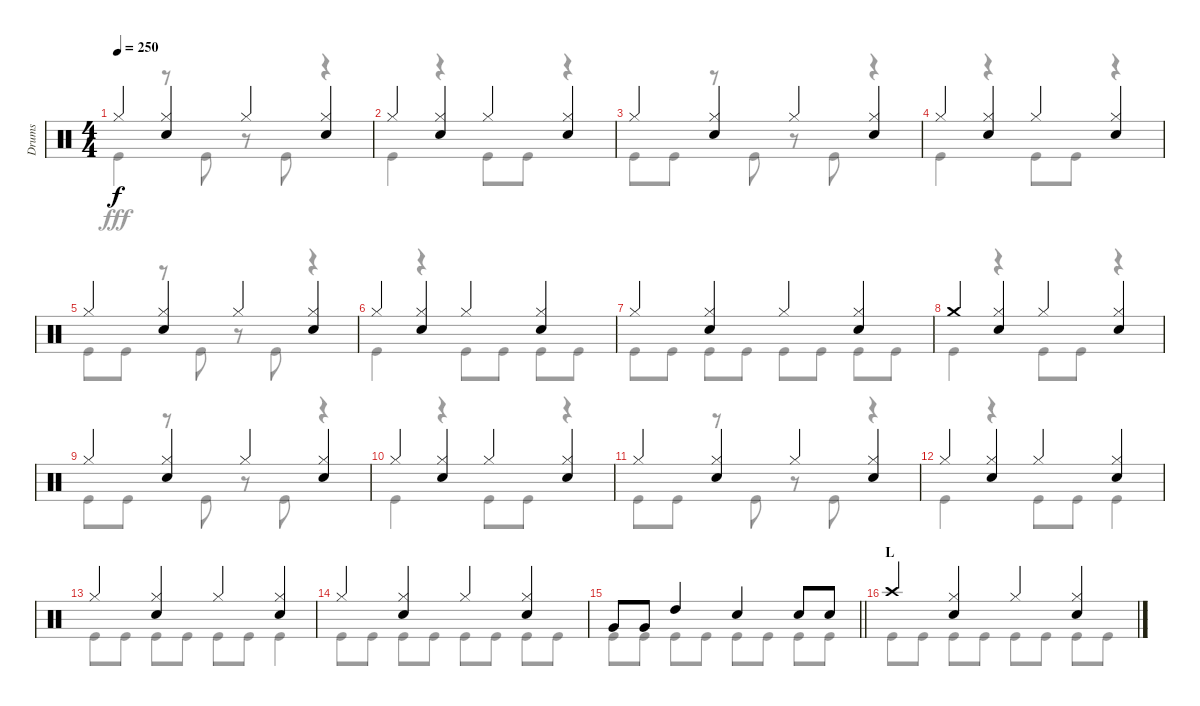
\track ("Drums" "Drums") {instrument percussion}
\staff {score}
\articulation defaults
\voice
\ts (4 4)
\tempo 250
\clef neutral
\ks c "Hi-Hat (closed)".4{dy f}
("Hi-Hat (closed)" "Snare (hit) 2").4 "Hi-Hat (closed)".4 ("Hi-Hat (closed)" "Snare (hit) 2").4 |
"Hi-Hat (closed)".4 ("Hi-Hat (closed)" "Snare (hit) 2").4 "Hi-Hat (closed)".4 ("Hi-Hat (closed)" "Snare (hit) 2").4 |
"Hi-Hat (closed)".4 ("Hi-Hat (closed)" "Snare (hit) 2").4 "Hi-Hat (closed)".4 ("Hi-Hat (closed)" "Snare (hit) 2").4 |
"Hi-Hat (closed)".4 ("Hi-Hat (closed)" "Snare (hit) 2").4 "Hi-Hat (closed)".4 ("Hi-Hat (closed)" "Snare (hit) 2").4 |
"Hi-Hat (closed)".4 ("Hi-Hat (closed)" "Snare (hit) 2").4 "Hi-Hat (closed)".4 ("Hi-Hat (closed)" "Snare (hit) 2").4 |
"Hi-Hat (closed)".4 ("Hi-Hat (closed)" "Snare (hit) 2").4 "Hi-Hat (closed)".4 ("Hi-Hat (closed)" "Snare (hit) 2").4 |
"Hi-Hat (closed)".4 ("Hi-Hat (closed)" "Snare (hit) 2").4 "Hi-Hat (closed)".4 ("Hi-Hat (closed)" "Snare (hit) 2").4 |
"Crash medium (hit)".4 ("Hi-Hat (closed)" "Snare (hit) 2").4 "Hi-Hat (closed)".4 ("Hi-Hat (closed)" "Snare (hit) 2").4 |
"Hi-Hat (closed)".4 ("Hi-Hat (closed)" "Snare (hit) 2").4 "Hi-Hat (closed)".4 ("Hi-Hat (closed)" "Snare (hit) 2").4 |
"Hi-Hat (closed)".4 ("Hi-Hat (closed)" "Snare (hit) 2").4 "Hi-Hat (closed)".4 ("Hi-Hat (closed)" "Snare (hit) 2").4 |
"Hi-Hat (closed)".4 ("Hi-Hat (closed)" "Snare (hit) 2").4 "Hi-Hat (closed)".4 ("Hi-Hat (closed)" "Snare (hit) 2").4 |
"Hi-Hat (closed)".4 ("Hi-Hat (closed)" "Snare (hit) 2").4 "Hi-Hat (closed)".4 ("Hi-Hat (closed)" "Snare (hit) 2").4 |
"Hi-Hat (closed)".4 ("Hi-Hat (closed)" "Snare (hit) 2").4 "Hi-Hat (closed)".4 ("Hi-Hat (closed)" "Snare (hit) 2").4 |
"Hi-Hat (closed)".4 ("Hi-Hat (closed)" "Snare (hit) 2").4 "Hi-Hat (closed)".4 ("Hi-Hat (closed)" "Snare (hit) 2").4 |
\barLineRight lightlight "Very Low Tom (hit)".8 "Very Low Tom (hit)".8 "High Tom (hit)".4 "Snare (hit) 2".4 "Snare (hit) 2".8 "Snare (hit) 2".8
|
\section ("" "L")
"Crash high (hit)".4 ("Hi-Hat (closed)" "Snare (hit) 2").4 "Hi-Hat (closed)".4 ("Hi-Hat (closed)" "Snare (hit) 2").4
\voice
\clef neutral
\ottava regular
\simile none
\ks c "Kick (hit)".4{dy fff}
r.8 "Kick (hit)".8 r.8 "Kick (hit)".8 r.4 |
"Kick (hit)".4 r.4 "Kick (hit)".8 "Kick (hit)".8 r.4 |
"Kick (hit)".8 "Kick (hit)".8 r.8 "Kick (hit)".8 r.8 "Kick (hit)".8 r.4 |
"Kick (hit)".4 r.4 "Kick (hit)".8 "Kick (hit)".8 r.4 |
"Kick (hit)".8 "Kick (hit)".8 r.8 "Kick (hit)".8 r.8 "Kick (hit)".8 r.4 |
"Kick (hit)".4 r.4 "Kick (hit)".8 "Kick (hit)".8 "Kick (hit)".8 "Kick (hit)".8 |
"Kick (hit)".8 "Kick (hit)".8 "Kick (hit)".8 "Kick (hit)".8 "Kick (hit)".8 "Kick (hit)".8 "Kick (hit)".8 "Kick (hit)".8 |
"Kick (hit)".4 r.4 "Kick (hit)".8 "Kick (hit)".8 r.4 |
"Kick (hit)".8 "Kick (hit)".8 r.8 "Kick (hit)".8 r.8 "Kick (hit)".8 r.4 |
"Kick (hit)".4 r.4 "Kick (hit)".8 "Kick (hit)".8 r.4 |
"Kick (hit)".8 "Kick (hit)".8 r.8 "Kick (hit)".8 r.8 "Kick (hit)".8 r.4 |
"Kick (hit)".4 r.4 "Kick (hit)".8 "Kick (hit)".8 "Kick (hit)".4 |
"Kick (hit)".8 "Kick (hit)".8 "Kick (hit)".8 "Kick (hit)".8 "Kick (hit)".8 "Kick (hit)".8 "Kick (hit)".4 |
"Kick (hit)".8 "Kick (hit)".8 "Kick (hit)".8 "Kick (hit)".8 "Kick (hit)".8 "Kick (hit)".8 "Kick (hit)".8 "Kick (hit)".8 |
\barLineRight lightlight "Kick (hit)".8 "Kick (hit)".8 "Kick (hit)".8 "Kick (hit)".8 "Kick (hit)".8 "Kick (hit)".8 "Kick (hit)".8 "Kick (hit)".8
|
"Kick (hit)".8 "Kick (hit)".8 "Kick (hit)".8 "Kick (hit)".8 "Kick (hit)".8 "Kick (hit)".8 "Kick (hit)".8 "Kick (hit)".8
